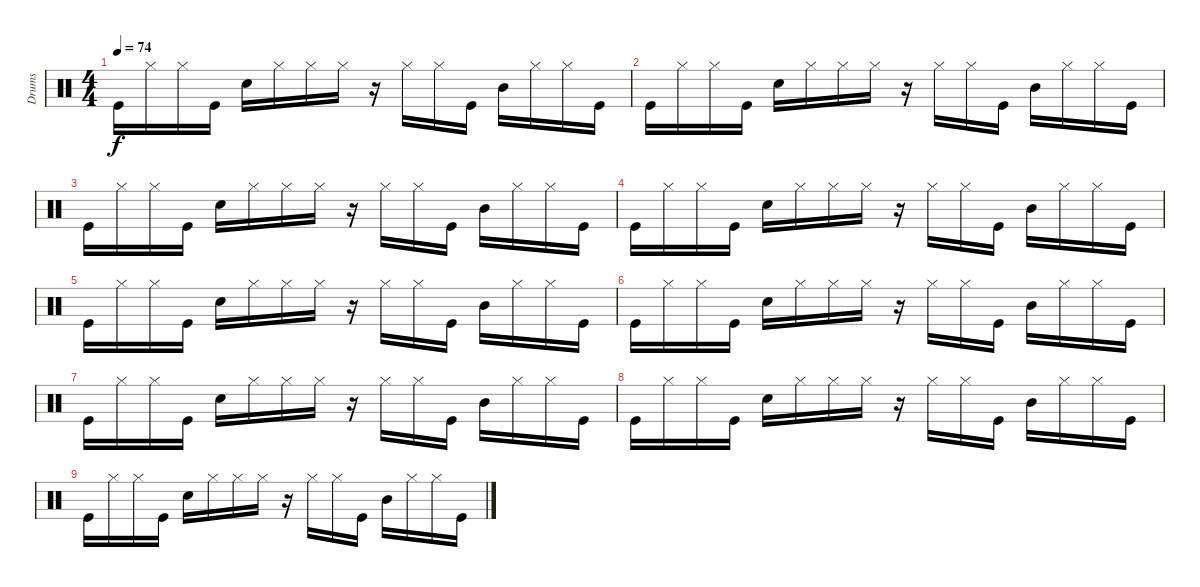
\track ("Drums" "Drums") {instrument percussion}
\staff {score}
\articulation defaults
\ts (4 4)
\tempo 74
\clef neutral
\ks c "Kick (hit)".16{dy f} "Hi-Hat (closed)".16 "Hi-Hat (closed)".16 "Kick (hit)".16 "Snare (hit) 2".16 "Hi-Hat (closed)".16 "Hi-Hat (closed)".16 "Hi-Hat (closed)".16
r.16 "Hi-Hat (closed)".16 "Hi-Hat (closed)".16 "Kick (hit)".16 "Mid Tom (hit)".16 "Hi-Hat (closed)".16 "Hi-Hat (closed)".16 "Kick (hit)".16 |
"Kick (hit)".16 "Hi-Hat (closed)".16 "Hi-Hat (closed)".16 "Kick (hit)".16 "Snare (hit) 2".16 "Hi-Hat (closed)".16 "Hi-Hat (closed)".16 "Hi-Hat (closed)".16 r.16 "Hi-Hat (closed)".16 "Hi-Hat (closed)".16 "Kick (hit)".16 "Mid Tom (hit)".16 "Hi-Hat (closed)".16 "Hi-Hat (closed)".16 "Kick (hit)".16 |
"Kick (hit)".16 "Hi-Hat (closed)".16 "Hi-Hat (closed)".16 "Kick (hit)".16 "Snare (hit) 2".16 "Hi-Hat (closed)".16 "Hi-Hat (closed)".16 "Hi-Hat (closed)".16 r.16 "Hi-Hat (closed)".16 "Hi-Hat (closed)".16 "Kick (hit)".16 "Mid Tom (hit)".16 "Hi-Hat (closed)".16 "Hi-Hat (closed)".16 "Kick (hit)".16 |
"Kick (hit)".16 "Hi-Hat (closed)".16 "Hi-Hat (closed)".16 "Kick (hit)".16 "Snare (hit) 2".16 "Hi-Hat (closed)".16 "Hi-Hat (closed)".16 "Hi-Hat (closed)".16 r.16 "Hi-Hat (closed)".16 "Hi-Hat (closed)".16 "Kick (hit)".16 "Mid Tom (hit)".16 "Hi-Hat (closed)".16 "Hi-Hat (closed)".16 "Kick (hit)".16 |
"Kick (hit)".16 "Hi-Hat (closed)".16 "Hi-Hat (closed)".16 "Kick (hit)".16 "Snare (hit) 2".16 "Hi-Hat (closed)".16 "Hi-Hat (closed)".16 "Hi-Hat (closed)".16 r.16 "Hi-Hat (closed)".16 "Hi-Hat (closed)".16 "Kick (hit)".16 "Mid Tom (hit)".16 "Hi-Hat (closed)".16 "Hi-Hat (closed)".16 "Kick (hit)".16 |
"Kick (hit)".16 "Hi-Hat (closed)".16 "Hi-Hat (closed)".16 "Kick (hit)".16 "Snare (hit) 2".16 "Hi-Hat (closed)".16 "Hi-Hat (closed)".16 "Hi-Hat (closed)".16 r.16 "Hi-Hat (closed)".16 "Hi-Hat (closed)".16 "Kick (hit)".16 "Mid Tom (hit)".16 "Hi-Hat (closed)".16 "Hi-Hat (closed)".16 "Kick (hit)".16 |
"Kick (hit)".16 "Hi-Hat (closed)".16 "Hi-Hat (closed)".16 "Kick (hit)".16 "Snare (hit) 2".16 "Hi-Hat (closed)".16 "Hi-Hat (closed)".16 "Hi-Hat (closed)".16 r.16 "Hi-Hat (closed)".16 "Hi-Hat (closed)".16 "Kick (hit)".16 "Mid Tom (hit)".16 "Hi-Hat (closed)".16 "Hi-Hat (closed)".16 "Kick (hit)".16 |
"Kick (hit)".16 "Hi-Hat (closed)".16 "Hi-Hat (closed)".16 "Kick (hit)".16 "Snare (hit) 2".16 "Hi-Hat (closed)".16 "Hi-Hat (closed)".16 "Hi-Hat (closed)".16 r.16 "Hi-Hat (closed)".16 "Hi-Hat (closed)".16 "Kick (hit)".16 "Mid Tom (hit)".16 "Hi-Hat (closed)".16 "Hi-Hat (closed)".16 "Kick (hit)".16 |
"Kick (hit)".16 "Hi-Hat (closed)".16 "Hi-Hat (closed)".16 "Kick (hit)".16 "Snare (hit) 2".16 "Hi-Hat (closed)".16 "Hi-Hat (closed)".16 "Hi-Hat (closed)".16 r.16 "Hi-Hat (closed)".16 "Hi-Hat (closed)".16 "Kick (hit)".16 "Mid Tom (hit)".16 "Hi-Hat (closed)".16 "Hi-Hat (closed)".16 "Kick (hit)".16
